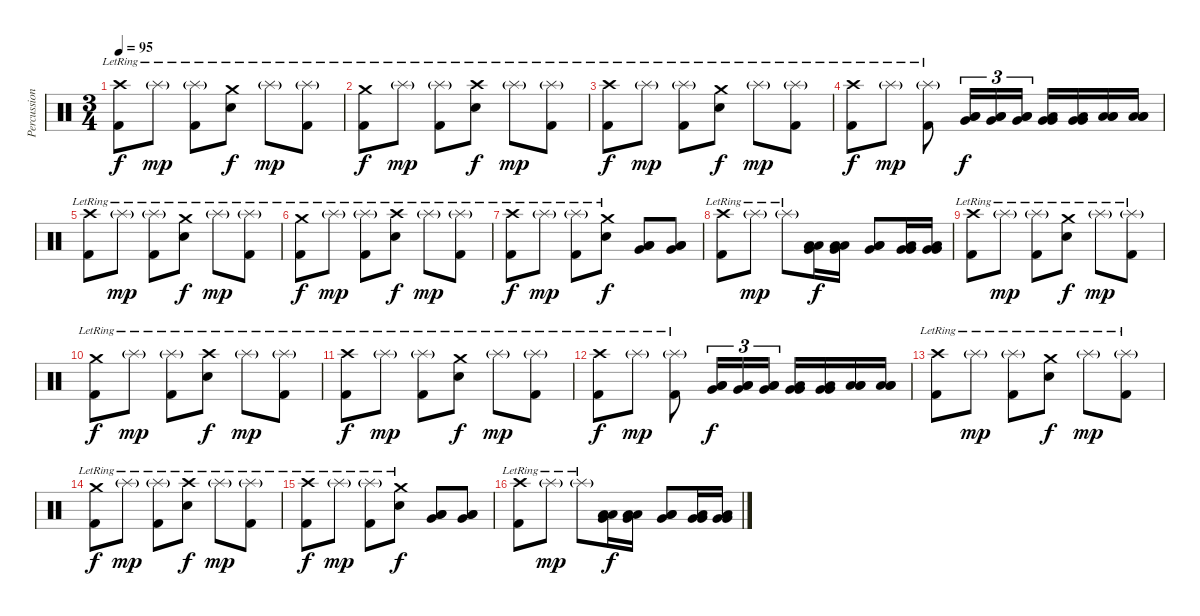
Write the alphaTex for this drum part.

\track ("Percussion I" "Percussion") {instrument percussion}
\staff {score}
\articulation defaults
\ts (3 4)
\tempo 95
\clef neutral
\ks c
("Crash high (hit)"{lr} "Kick (hit) 2").8{dy f} "Splash (hit)"{g lr}.8{dy mp} ("Splash (hit)"{g lr} "Kick (hit) 2").8 ("Crash medium (hit)"{lr} "Electric Snare (hit)").8{dy f} "Splash (hit)"{g lr}.8{dy mp} ("Splash (hit)"{g lr} "Kick (hit) 2").8 |
("Crash medium (hit)"{lr} "Kick (hit) 2").8{dy f} "Splash (hit)"{g lr}.8{dy mp} ("Splash (hit)"{g lr} "Kick (hit) 2").8 ("Crash high (hit)"{lr} "Electric Snare (hit)").8{dy f} "Splash (hit)"{g lr}.8{dy mp} ("Splash (hit)"{g lr} "Kick (hit) 2").8 |
("Crash high (hit)"{lr} "Kick (hit) 2").8{dy f} "Splash (hit)"{g lr}.8{dy mp} ("Splash (hit)"{g lr} "Kick (hit) 2").8 ("Crash medium (hit)"{lr} "Electric Snare (hit)").8{dy f} "Splash (hit)"{g lr}.8{dy mp} ("Splash (hit)"{g lr} "Kick (hit) 2").8 |
("Crash high (hit)"{lr} "Kick (hit) 2").8{dy f} "Splash (hit)"{g lr}.8{dy mp} ("Splash (hit)"{g lr} "Kick (hit) 2").8 ("Low Tom (hit)" "Low Tom (hit)" "Very Low Tom (hit)").16{tu (3 2) dy f} ("Low Tom (hit)" "Low Tom (hit)" "Very Low Tom (hit)").16{tu (3 2)} ("Low Tom (hit)" "Low Tom (hit)" "Very Low Tom (hit)").16{tu (3 2)} ("Very Low Tom (hit)" "Very Low Tom (hit)" "Low Floor Tom (hit)").16 ("Very Low Tom (hit)" "Very Low Tom (hit)" "Low Floor Tom (hit)").16 ("Low Floor Tom (hit)" "Low Floor Tom (hit)" "Low Floor Tom (hit)").16 ("Low Floor Tom (hit)" "Low Floor Tom (hit)" "Low Floor Tom (hit)").16 |
("Crash high (hit)"{lr} "Kick (hit) 2").8 "Splash (hit)"{g lr}.8{dy mp} ("Splash (hit)"{g lr} "Kick (hit) 2").8 ("Crash medium (hit)"{lr} "Electric Snare (hit)").8{dy f} "Splash (hit)"{g lr}.8{dy mp} ("Splash (hit)"{g lr} "Kick (hit) 2").8 |
("Crash medium (hit)"{lr} "Kick (hit) 2").8{dy f} "Splash (hit)"{g lr}.8{dy mp} ("Splash (hit)"{g lr} "Kick (hit) 2").8 ("Crash high (hit)"{lr} "Electric Snare (hit)").8{dy f} "Splash (hit)"{g lr}.8{dy mp} ("Splash (hit)"{g lr} "Kick (hit) 2").8 |
("Crash high (hit)"{lr} "Kick (hit) 2").8{dy f} "Splash (hit)"{g lr}.8{dy mp} ("Splash (hit)"{g lr} "Kick (hit) 2").8 ("Crash medium (hit)"{lr} "Electric Snare (hit)").8{dy f} ("Low Tom (hit)" "Low Tom (hit)" "Very Low Tom (hit)").8 ("Low Tom (hit)" "Low Tom (hit)" "Very Low Tom (hit)").8 |
("Crash high (hit)"{lr} "Kick (hit) 2").8 "Splash (hit)"{g lr}.8{dy mp} "Splash (hit)"{g lr}.8 ("Low Tom (hit)" "Low Tom (hit)" "Very Low Tom (hit)").16{dy f} ("Low Tom (hit)" "Low Tom (hit)" "Very Low Tom (hit)").16 ("Low Tom (hit)" "Low Tom (hit)" "Very Low Tom (hit)").8 ("Very Low Tom (hit)" "Very Low Tom (hit)" "Low Floor Tom (hit)").16 ("Very Low Tom (hit)" "Very Low Tom (hit)" "Low Floor Tom (hit)").16 |
("Crash high (hit)"{lr} "Kick (hit) 2").8 "Splash (hit)"{g lr}.8{dy mp} ("Splash (hit)"{g lr} "Kick (hit) 2").8 ("Crash medium (hit)"{lr} "Electric Snare (hit)").8{dy f} "Splash (hit)"{g lr}.8{dy mp} ("Splash (hit)"{g lr} "Kick (hit) 2").8 |
("Crash medium (hit)"{lr} "Kick (hit) 2").8{dy f} "Splash (hit)"{g lr}.8{dy mp} ("Splash (hit)"{g lr} "Kick (hit) 2").8 ("Crash high (hit)"{lr} "Electric Snare (hit)").8{dy f} "Splash (hit)"{g lr}.8{dy mp} ("Splash (hit)"{g lr} "Kick (hit) 2").8 |
("Crash high (hit)"{lr} "Kick (hit) 2").8{dy f} "Splash (hit)"{g lr}.8{dy mp} ("Splash (hit)"{g lr} "Kick (hit) 2").8 ("Crash medium (hit)"{lr} "Electric Snare (hit)").8{dy f} "Splash (hit)"{g lr}.8{dy mp} ("Splash (hit)"{g lr} "Kick (hit) 2").8 |
("Crash high (hit)"{lr} "Kick (hit) 2").8{dy f} "Splash (hit)"{g lr}.8{dy mp} ("Splash (hit)"{g lr} "Kick (hit) 2").8 ("Low Tom (hit)" "Low Tom (hit)" "Very Low Tom (hit)").16{tu (3 2) dy f} ("Low Tom (hit)" "Low Tom (hit)" "Very Low Tom (hit)").16{tu (3 2)} ("Low Tom (hit)" "Low Tom (hit)" "Very Low Tom (hit)").16{tu (3 2)} ("Very Low Tom (hit)" "Very Low Tom (hit)" "Low Floor Tom (hit)").16 ("Very Low Tom (hit)" "Very Low Tom (hit)" "Low Floor Tom (hit)").16 ("Low Floor Tom (hit)" "Low Floor Tom (hit)" "Low Floor Tom (hit)").16 ("Low Floor Tom (hit)" "Low Floor Tom (hit)" "Low Floor Tom (hit)").16 |
("Crash high (hit)"{lr} "Kick (hit) 2").8 "Splash (hit)"{g lr}.8{dy mp} ("Splash (hit)"{g lr} "Kick (hit) 2").8 ("Crash medium (hit)"{lr} "Electric Snare (hit)").8{dy f} "Splash (hit)"{g lr}.8{dy mp} ("Splash (hit)"{g lr} "Kick (hit) 2").8 |
("Crash medium (hit)"{lr} "Kick (hit) 2").8{dy f} "Splash (hit)"{g lr}.8{dy mp} ("Splash (hit)"{g lr} "Kick (hit) 2").8 ("Crash high (hit)"{lr} "Electric Snare (hit)").8{dy f} "Splash (hit)"{g lr}.8{dy mp} ("Splash (hit)"{g lr} "Kick (hit) 2").8 |
("Crash high (hit)"{lr} "Kick (hit) 2").8{dy f} "Splash (hit)"{g lr}.8{dy mp} ("Splash (hit)"{g lr} "Kick (hit) 2").8 ("Crash medium (hit)"{lr} "Electric Snare (hit)").8{dy f} ("Low Tom (hit)" "Low Tom (hit)" "Very Low Tom (hit)").8 ("Low Tom (hit)" "Low Tom (hit)" "Very Low Tom (hit)").8 |
("Crash high (hit)"{lr} "Kick (hit) 2").8 "Splash (hit)"{g lr}.8{dy mp} "Splash (hit)"{g lr}.8 ("Low Tom (hit)" "Low Tom (hit)" "Very Low Tom (hit)").16{dy f} ("Low Tom (hit)" "Low Tom (hit)" "Very Low Tom (hit)").16 ("Low Tom (hit)" "Low Tom (hit)" "Very Low Tom (hit)").8 ("Very Low Tom (hit)" "Very Low Tom (hit)" "Low Floor Tom (hit)").16 ("Very Low Tom (hit)" "Very Low Tom (hit)" "Low Floor Tom (hit)").16
